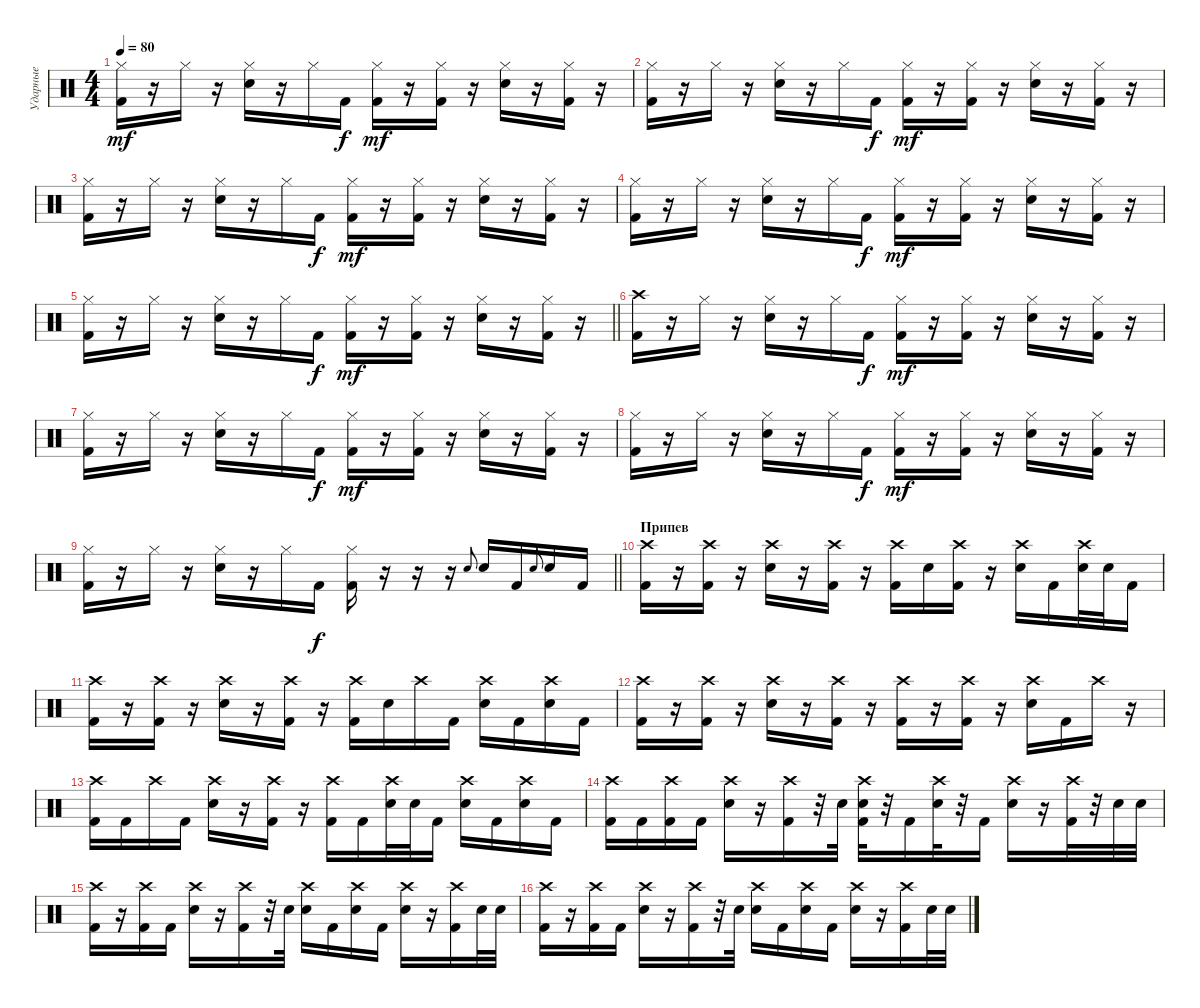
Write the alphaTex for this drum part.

\track ("Ударные" "Ударные") {instrument percussion}
\staff {score}
\articulation defaults
\ts (4 4)
\tempo 80
\clef neutral
\ks c
("Hi-Hat (closed)" "Kick (hit) 2").16{dy mf} r.16 "Hi-Hat (closed)".16 r.16 ("Hi-Hat (closed)" "Electric Snare (hit)").16 r.16 "Hi-Hat (closed)".16 "Kick (hit) 2".16{dy f} ("Hi-Hat (closed)" "Kick (hit) 2").16{dy mf} r.16 ("Hi-Hat (closed)" "Kick (hit) 2").16 r.16 ("Hi-Hat (closed)" "Electric Snare (hit)").16 r.16 ("Hi-Hat (closed)" "Kick (hit) 2").16 r.16 |
("Hi-Hat (closed)" "Kick (hit) 2").16 r.16 "Hi-Hat (closed)".16 r.16 ("Hi-Hat (closed)" "Electric Snare (hit)").16 r.16 "Hi-Hat (closed)".16 "Kick (hit) 2".16{dy f} ("Hi-Hat (closed)" "Kick (hit) 2").16{dy mf} r.16 ("Hi-Hat (closed)" "Kick (hit) 2").16 r.16 ("Hi-Hat (closed)" "Electric Snare (hit)").16 r.16 ("Hi-Hat (closed)" "Kick (hit) 2").16 r.16 |
("Hi-Hat (closed)" "Kick (hit) 2").16 r.16 "Hi-Hat (closed)".16 r.16 ("Hi-Hat (closed)" "Electric Snare (hit)").16 r.16 "Hi-Hat (closed)".16 "Kick (hit) 2".16{dy f} ("Hi-Hat (closed)" "Kick (hit) 2").16{dy mf} r.16 ("Hi-Hat (closed)" "Kick (hit) 2").16 r.16 ("Hi-Hat (closed)" "Electric Snare (hit)").16 r.16 ("Hi-Hat (closed)" "Kick (hit) 2").16 r.16 |
("Hi-Hat (closed)" "Kick (hit) 2").16 r.16 "Hi-Hat (closed)".16 r.16 ("Hi-Hat (closed)" "Electric Snare (hit)").16 r.16 "Hi-Hat (closed)".16 "Kick (hit) 2".16{dy f} ("Hi-Hat (closed)" "Kick (hit) 2").16{dy mf} r.16 ("Hi-Hat (closed)" "Kick (hit) 2").16 r.16 ("Hi-Hat (closed)" "Electric Snare (hit)").16 r.16 ("Hi-Hat (closed)" "Kick (hit) 2").16 r.16 |
\barLineRight lightlight
("Hi-Hat (closed)" "Kick (hit) 2").16 r.16 "Hi-Hat (closed)".16 r.16 ("Hi-Hat (closed)" "Electric Snare (hit)").16 r.16 "Hi-Hat (closed)".16 "Kick (hit) 2".16{dy f} ("Hi-Hat (closed)" "Kick (hit) 2").16{dy mf} r.16 ("Hi-Hat (closed)" "Kick (hit) 2").16 r.16 ("Hi-Hat (closed)" "Electric Snare (hit)").16 r.16 ("Hi-Hat (closed)" "Kick (hit) 2").16 r.16 |
("Crash high (hit)" "Kick (hit) 2").16 r.16 "Hi-Hat (closed)".16 r.16 ("Hi-Hat (closed)" "Electric Snare (hit)").16 r.16 "Hi-Hat (closed)".16 "Kick (hit) 2".16{dy f} ("Hi-Hat (closed)" "Kick (hit) 2").16{dy mf} r.16 ("Hi-Hat (closed)" "Kick (hit) 2").16 r.16 ("Hi-Hat (closed)" "Electric Snare (hit)").16 r.16 ("Hi-Hat (closed)" "Kick (hit) 2").16 r.16 |
("Hi-Hat (closed)" "Kick (hit) 2").16 r.16 "Hi-Hat (closed)".16 r.16 ("Hi-Hat (closed)" "Electric Snare (hit)").16 r.16 "Hi-Hat (closed)".16 "Kick (hit) 2".16{dy f} ("Hi-Hat (closed)" "Kick (hit) 2").16{dy mf} r.16 ("Hi-Hat (closed)" "Kick (hit) 2").16 r.16 ("Hi-Hat (closed)" "Electric Snare (hit)").16 r.16 ("Hi-Hat (closed)" "Kick (hit) 2").16 r.16 |
("Hi-Hat (closed)" "Kick (hit) 2").16 r.16 "Hi-Hat (closed)".16 r.16 ("Hi-Hat (closed)" "Electric Snare (hit)").16 r.16 "Hi-Hat (closed)".16 "Kick (hit) 2".16{dy f} ("Hi-Hat (closed)" "Kick (hit) 2").16{dy mf} r.16 ("Hi-Hat (closed)" "Kick (hit) 2").16 r.16 ("Hi-Hat (closed)" "Electric Snare (hit)").16 r.16 ("Hi-Hat (closed)" "Kick (hit) 2").16 r.16 |
\barLineRight lightlight
("Hi-Hat (closed)" "Kick (hit) 2").16 r.16 "Hi-Hat (closed)".16 r.16 ("Hi-Hat (closed)" "Electric Snare (hit)").16 r.16 "Hi-Hat (closed)".16 "Kick (hit) 2".16{dy f} ("Hi-Hat (closed)" "Kick (hit) 2").16 r.16 r.16 r.16 "Electric Snare (hit)".8{gr onbeat} "Electric Snare (hit)".16 "Kick (hit) 2".16 "Electric Snare (hit)".8{gr onbeat} "Electric Snare (hit)".16 "Kick (hit) 2".16 |
\section ("" "Припев")
("Crash high (hit)" "Kick (hit) 2").16 r.16 ("Crash high (hit)" "Kick (hit) 2").16 r.16 ("Crash high (hit)" "Electric Snare (hit)").16 r.16 ("Crash high (hit)" "Kick (hit) 2").16 r.16 ("Crash high (hit)" "Kick (hit) 2").16 "Electric Snare (hit)".16 ("Crash high (hit)" "Kick (hit) 2").16 r.16 ("Crash high (hit)" "Electric Snare (hit)").16 "Kick (hit) 2".16 ("Crash high (hit)" "Electric Snare (hit)").32 "Electric Snare (hit)".32 "Kick (hit) 2".16 |
("Crash high (hit)" "Kick (hit) 2").16 r.16 ("Crash high (hit)" "Kick (hit) 2").16 r.16 ("Crash high (hit)" "Electric Snare (hit)").16 r.16 ("Crash high (hit)" "Kick (hit) 2").16 r.16 ("Crash high (hit)" "Kick (hit) 2").16 "Electric Snare (hit)".16 "Crash high (hit)".16 "Kick (hit) 2".16 ("Crash high (hit)" "Electric Snare (hit)").16 "Kick (hit) 2".16 ("Crash high (hit)" "Electric Snare (hit)").16 "Kick (hit) 2".16 |
("Crash high (hit)" "Kick (hit) 2").16 r.16 ("Crash high (hit)" "Kick (hit) 2").16 r.16 ("Crash high (hit)" "Electric Snare (hit)").16 r.16 ("Crash high (hit)" "Kick (hit) 2").16 r.16 ("Crash high (hit)" "Kick (hit) 2").16 r.16 ("Crash high (hit)" "Kick (hit) 2").16 r.16 ("Crash high (hit)" "Electric Snare (hit)").16 "Kick (hit) 2".16 "Crash high (hit)".16 r.16 |
("Crash high (hit)" "Kick (hit) 2").16 "Kick (hit) 2".16 "Crash high (hit)".16 "Kick (hit) 2".16 ("Crash high (hit)" "Electric Snare (hit)").16 r.16 ("Crash high (hit)" "Kick (hit) 2").16 r.16 ("Crash high (hit)" "Kick (hit) 2").16 "Kick (hit) 2".16 ("Crash high (hit)" "Electric Snare (hit)").32 "Electric Snare (hit)".32 "Kick (hit) 2".16 ("Crash high (hit)" "Electric Snare (hit)").16 "Kick (hit) 2".16 ("Crash high (hit)" "Electric Snare (hit)").16 "Kick (hit) 2".16 |
("Crash high (hit)" "Kick (hit) 2").16 "Kick (hit) 2".16 ("Crash high (hit)" "Kick (hit) 2").16 "Kick (hit) 2".16 ("Crash high (hit)" "Electric Snare (hit)").16 r.16 ("Crash high (hit)" "Kick (hit) 2").16 r.32 "Electric Snare (hit)".32 ("Crash high (hit)" "Electric Snare (hit)" "Kick (hit) 2").32 r.32 "Kick (hit) 2".16 ("Crash high (hit)" "Electric Snare (hit)").32 r.32 "Kick (hit) 2".16 ("Crash high (hit)" "Electric Snare (hit)").16 r.16 ("Crash high (hit)" "Kick (hit) 2").32 r.32 "Electric Snare (hit)".32 "Electric Snare (hit)".32 |
("Crash high (hit)" "Kick (hit) 2").16 r.16 ("Crash high (hit)" "Kick (hit) 2").16 "Kick (hit) 2".16 ("Crash high (hit)" "Electric Snare (hit)").16 r.16 ("Crash high (hit)" "Kick (hit) 2").16 r.32 "Electric Snare (hit)".32 ("Crash high (hit)" "Electric Snare (hit)").16 "Kick (hit) 2".16 ("Crash high (hit)" "Electric Snare (hit)").16 "Kick (hit) 2".16 ("Crash high (hit)" "Electric Snare (hit)").16 r.16 ("Crash high (hit)" "Kick (hit) 2").16 "Electric Snare (hit)".32 "Electric Snare (hit)".32 |
("Crash high (hit)" "Kick (hit) 2").16 r.16 ("Crash high (hit)" "Kick (hit) 2").16 "Kick (hit) 2".16 ("Crash high (hit)" "Electric Snare (hit)").16 r.16 ("Crash high (hit)" "Kick (hit) 2").16 r.32 "Electric Snare (hit)".32 ("Crash high (hit)" "Electric Snare (hit)").16 "Kick (hit) 2".16 ("Crash high (hit)" "Electric Snare (hit)").16 "Kick (hit) 2".16 ("Crash high (hit)" "Electric Snare (hit)").16 r.16 ("Crash high (hit)" "Kick (hit) 2").16 "Electric Snare (hit)".32 "Electric Snare (hit)".32
